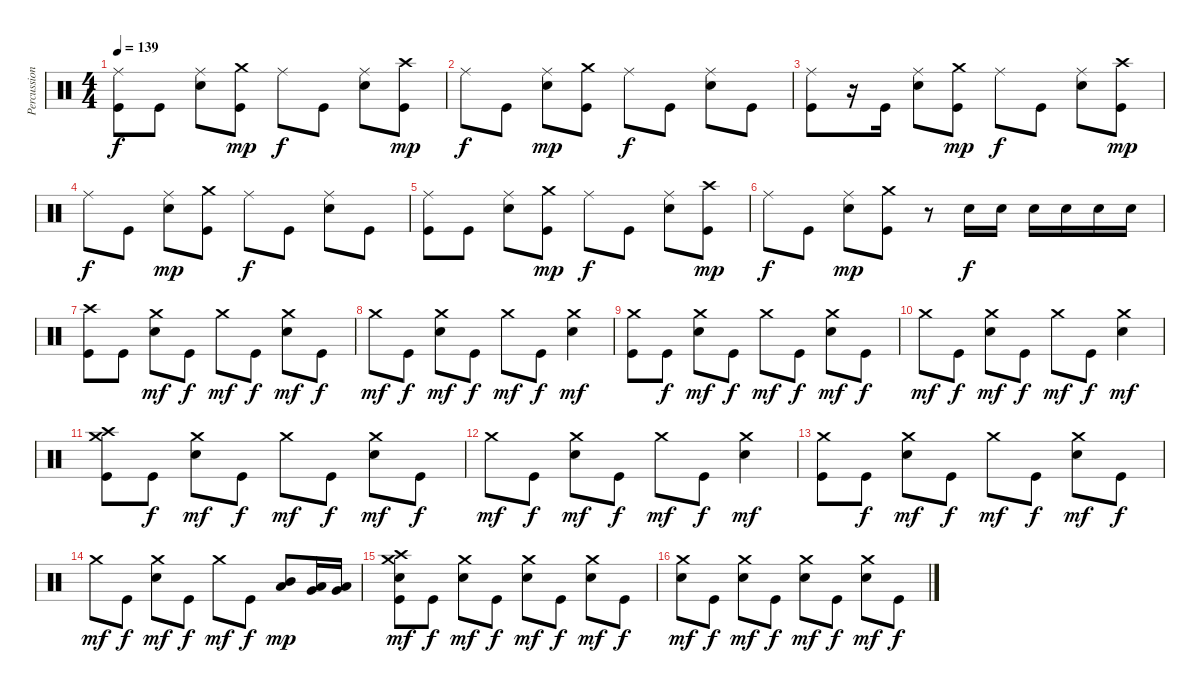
\track ("Percussions" "Percussion") {instrument percussion}
\staff {score}
\articulation defaults
\ts (4 4)
\tempo 139
\clef neutral
\ks c
("Kick (hit)" "Ride (middle)").8{dy f} "Kick (hit)".8 ("Electric Snare (hit)" "Ride (middle)").8 ("Kick (hit)" "Crash medium (hit)").8{dy mp} "Ride (middle)".8{dy f} "Kick (hit)".8 ("Electric Snare (hit)" "Ride (middle)").8 ("Kick (hit)" "Crash high (hit)").8{dy mp} |
"Ride (middle)".8{dy f} "Kick (hit)".8 ("Electric Snare (hit)" "Ride (middle)").8{dy mp} ("Kick (hit)" "Crash medium (hit)").8 "Ride (middle)".8{dy f} "Kick (hit)".8 ("Electric Snare (hit)" "Ride (middle)").8 "Kick (hit)".8 |
("Kick (hit)" "Ride (middle)").8 r.16 "Kick (hit)".16 ("Electric Snare (hit)" "Ride (middle)").8 ("Kick (hit)" "Crash medium (hit)").8{dy mp} "Ride (middle)".8{dy f} "Kick (hit)".8 ("Electric Snare (hit)" "Ride (middle)").8 ("Kick (hit)" "Crash high (hit)").8{dy mp} |
"Ride (middle)".8{dy f} "Kick (hit)".8 ("Electric Snare (hit)" "Ride (middle)").8{dy mp} ("Kick (hit)" "Crash medium (hit)").8 "Ride (middle)".8{dy f} "Kick (hit)".8 ("Electric Snare (hit)" "Ride (middle)").8 "Kick (hit)".8 |
("Kick (hit)" "Ride (middle)").8 "Kick (hit)".8 ("Electric Snare (hit)" "Ride (middle)").8 ("Kick (hit)" "Crash medium (hit)").8{dy mp} "Ride (middle)".8{dy f} "Kick (hit)".8 ("Electric Snare (hit)" "Ride (middle)").8 ("Kick (hit)" "Crash high (hit)").8{dy mp} |
"Ride (middle)".8{dy f} "Kick (hit)".8 ("Electric Snare (hit)" "Ride (middle)").8{dy mp} ("Kick (hit)" "Crash medium (hit)").8 r.8 "Electric Snare (hit)".16{dy f} "Electric Snare (hit)".16 "Electric Snare (hit)".16 "Electric Snare (hit)".16 "Electric Snare (hit)".16 "Electric Snare (hit)".16 |
("Kick (hit)" "Crash high (hit)").8 "Kick (hit)".8 ("Electric Snare (hit)" "Crash medium (hit)").8{dy mf} "Kick (hit)".8{dy f} "Crash medium (hit)".8{dy mf} "Kick (hit)".8{dy f} ("Electric Snare (hit)" "Crash medium (hit)").8{dy mf} "Kick (hit)".8{dy f} |
"Crash medium (hit)".8{dy mf} "Kick (hit)".8{dy f} ("Electric Snare (hit)" "Crash medium (hit)").8{dy mf} "Kick (hit)".8{dy f} "Crash medium (hit)".8{dy mf} "Kick (hit)".8{dy f} ("Electric Snare (hit)" "Crash medium (hit)").4{dy mf} |
("Kick (hit)" "Crash medium (hit)").8 "Kick (hit)".8{dy f} ("Electric Snare (hit)" "Crash medium (hit)").8{dy mf} "Kick (hit)".8{dy f} "Crash medium (hit)".8{dy mf} "Kick (hit)".8{dy f} ("Electric Snare (hit)" "Crash medium (hit)").8{dy mf} "Kick (hit)".8{dy f} |
"Crash medium (hit)".8{dy mf} "Kick (hit)".8{dy f} ("Electric Snare (hit)" "Crash medium (hit)").8{dy mf} "Kick (hit)".8{dy f} "Crash medium (hit)".8{dy mf} "Kick (hit)".8{dy f} ("Electric Snare (hit)" "Crash medium (hit)").4{dy mf} |
("Kick (hit)" "Crash medium (hit)" "Crash high (hit)").8 "Kick (hit)".8{dy f} ("Electric Snare (hit)" "Crash medium (hit)").8{dy mf} "Kick (hit)".8{dy f} "Crash medium (hit)".8{dy mf} "Kick (hit)".8{dy f} ("Electric Snare (hit)" "Crash medium (hit)").8{dy mf} "Kick (hit)".8{dy f} |
"Crash medium (hit)".8{dy mf} "Kick (hit)".8{dy f} ("Electric Snare (hit)" "Crash medium (hit)").8{dy mf} "Kick (hit)".8{dy f} "Crash medium (hit)".8{dy mf} "Kick (hit)".8{dy f} ("Electric Snare (hit)" "Crash medium (hit)").4{dy mf} |
("Kick (hit)" "Crash medium (hit)").8 "Kick (hit)".8{dy f} ("Electric Snare (hit)" "Crash medium (hit)").8{dy mf} "Kick (hit)".8{dy f} "Crash medium (hit)".8{dy mf} "Kick (hit)".8{dy f} ("Electric Snare (hit)" "Crash medium (hit)").8{dy mf} "Kick (hit)".8{dy f} |
"Crash medium (hit)".8{dy mf} "Kick (hit)".8{dy f} ("Electric Snare (hit)" "Crash medium (hit)").8{dy mf} "Kick (hit)".8{dy f} "Crash medium (hit)".8{dy mf} "Kick (hit)".8{dy f} ("Low Tom (hit)" "Mid Tom (hit)").8{dy mp} ("Very Low Tom (hit)" "Low Tom (hit)").16 ("Low Floor Tom (hit)" "Very Low Tom (hit)").16 |
("Kick (hit)" "Electric Snare (hit)" "Crash medium (hit)" "Crash high (hit)").8{dy mf} "Kick (hit)".8{dy f} ("Electric Snare (hit)" "Crash medium (hit)").8{dy mf} "Kick (hit)".8{dy f} ("Electric Snare (hit)" "Crash medium (hit)").8{dy mf} "Kick (hit)".8{dy f} ("Electric Snare (hit)" "Crash medium (hit)").8{dy mf} "Kick (hit)".8{dy f} |
("Electric Snare (hit)" "Crash medium (hit)").8{dy mf} "Kick (hit)".8{dy f} ("Electric Snare (hit)" "Crash medium (hit)").8{dy mf} "Kick (hit)".8{dy f} ("Electric Snare (hit)" "Crash medium (hit)").8{dy mf} "Kick (hit)".8{dy f} ("Electric Snare (hit)" "Crash medium (hit)").8{dy mf} "Kick (hit)".8{dy f}
